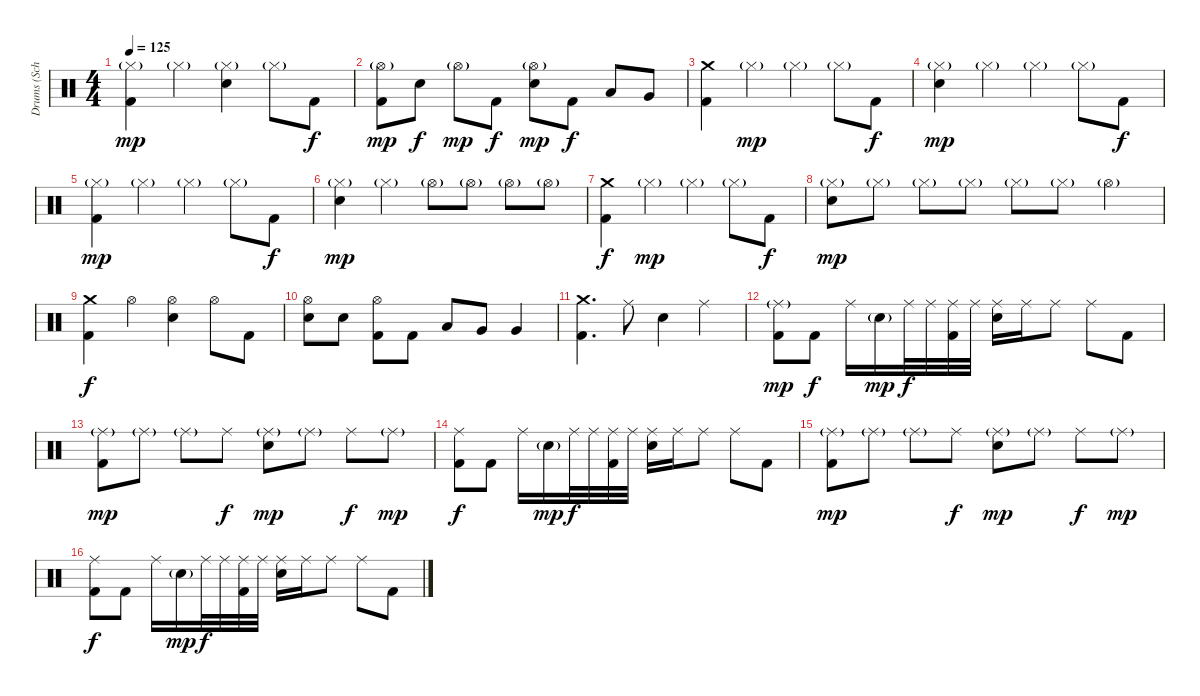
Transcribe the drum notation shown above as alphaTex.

\track ("Drums (Schill)" "Drums (Sch") {instrument percussion}
\staff {score}
\articulation defaults
\ts (4 4)
\tempo 125
\clef neutral
\ks c
("Hi-Hat (closed)"{g} "Kick (hit) 2").4{dy mp} "Hi-Hat (closed)"{g}.4 ("Hi-Hat (closed)"{g} "Electric Snare (hit)").4 "Hi-Hat (closed)"{g}.8 "Kick (hit) 2".8{dy f} |
("Hi-Hat (open)"{g} "Kick (hit) 2").8{dy mp} "Electric Snare (hit)".8{dy f} "Hi-Hat (open)"{g}.8{dy mp} "Kick (hit) 2".8{dy f} ("Hi-Hat (open)"{g} "Electric Snare (hit)").8{dy mp} "Kick (hit) 2".8{dy f} "Low Tom (hit)".8 "Very Low Tom (hit)".8 |
("Crash medium (hit)" "Kick (hit) 2").4 "Hi-Hat (closed)"{g}.4{dy mp} "Hi-Hat (closed)"{g}.4 "Hi-Hat (closed)"{g}.8 "Kick (hit) 2".8{dy f} |
("Hi-Hat (closed)"{g} "Electric Snare (hit)").4{dy mp} "Hi-Hat (closed)"{g}.4 "Hi-Hat (closed)"{g}.4 "Hi-Hat (closed)"{g}.8 "Kick (hit) 2".8{dy f} |
("Hi-Hat (closed)"{g} "Kick (hit) 2").4{dy mp} "Hi-Hat (closed)"{g}.4 "Hi-Hat (closed)"{g}.4 "Hi-Hat (closed)"{g}.8 "Kick (hit) 2".8{dy f} |
("Hi-Hat (closed)"{g} "Electric Snare (hit)").4{dy mp} "Hi-Hat (closed)"{g}.4 "Hi-Hat (open)"{g}.8 "Hi-Hat (open)"{g}.8 "Hi-Hat (open)"{g}.8 "Hi-Hat (open)"{g}.8 |
("Crash medium (hit)" "Kick (hit) 2").4{dy f} "Hi-Hat (closed)"{g}.4{dy mp} "Hi-Hat (closed)"{g}.4 "Hi-Hat (closed)"{g}.8 "Kick (hit) 2".8{dy f} |
("Hi-Hat (closed)"{g} "Electric Snare (hit)").8{dy mp} "Hi-Hat (closed)"{g}.8 "Hi-Hat (closed)"{g}.8 "Hi-Hat (closed)"{g}.8 "Hi-Hat (closed)"{g}.8 "Hi-Hat (closed)"{g}.8 "Hi-Hat (open)"{g}.4 |
("Crash medium (hit)" "Kick (hit) 2").4{dy f} "Hi-Hat (open)".4 ("Hi-Hat (open)" "Electric Snare (hit)").4 "Hi-Hat (open)".8 "Kick (hit) 2".8 |
("Hi-Hat (open)" "Electric Snare (hit)").8 "Electric Snare (hit)".8 ("Hi-Hat (open)" "Kick (hit) 2").8 "Kick (hit) 2".8 "Low Tom (hit)".8 "Very Low Tom (hit)".8 "Very Low Tom (hit)".4 |
("Crash medium (hit)" "Kick (hit) 2").4{d} "Ride (middle)".8 "Electric Snare (hit)".4 "Ride (middle)".4 |
("Ride (middle)"{g} "Kick (hit) 2").8{dy mp} "Kick (hit) 2".8{dy f} "Ride (middle)".16 "Electric Snare (hit)"{g}.16{dy mp} "Ride (middle)".32{dy f} "Ride (middle)".32 ("Ride (middle)" "Kick (hit) 2").32 "Ride (middle)".32 ("Ride (middle)" "Electric Snare (hit)").16 "Ride (middle)".16 "Ride (middle)".8 "Ride (middle)".8 "Kick (hit) 2".8 |
("Ride (middle)"{g} "Kick (hit) 2").8{dy mp} "Ride (middle)"{g}.8 "Ride (middle)"{g}.8 "Ride (middle)".8{dy f} ("Ride (middle)"{g} "Electric Snare (hit)").8{dy mp} "Ride (middle)"{g}.8 "Ride (middle)".8{dy f} "Ride (middle)"{g}.8{dy mp} |
("Ride (middle)" "Kick (hit) 2").8{dy f} "Kick (hit) 2".8 "Ride (middle)".16 "Electric Snare (hit)"{g}.16{dy mp} "Ride (middle)".32{dy f} "Ride (middle)".32 ("Ride (middle)" "Kick (hit) 2").32 "Ride (middle)".32 ("Ride (middle)" "Electric Snare (hit)").16 "Ride (middle)".16 "Ride (middle)".8 "Ride (middle)".8 "Kick (hit) 2".8 |
("Ride (middle)"{g} "Kick (hit) 2").8{dy mp} "Ride (middle)"{g}.8 "Ride (middle)"{g}.8 "Ride (middle)".8{dy f} ("Ride (middle)"{g} "Electric Snare (hit)").8{dy mp} "Ride (middle)"{g}.8 "Ride (middle)".8{dy f} "Ride (middle)"{g}.8{dy mp} |
("Ride (middle)" "Kick (hit) 2").8{dy f} "Kick (hit) 2".8 "Ride (middle)".16 "Electric Snare (hit)"{g}.16{dy mp} "Ride (middle)".32{dy f} "Ride (middle)".32 ("Ride (middle)" "Kick (hit) 2").32 "Ride (middle)".32 ("Ride (middle)" "Electric Snare (hit)").16 "Ride (middle)".16 "Ride (middle)".8 "Ride (middle)".8 "Kick (hit) 2".8
